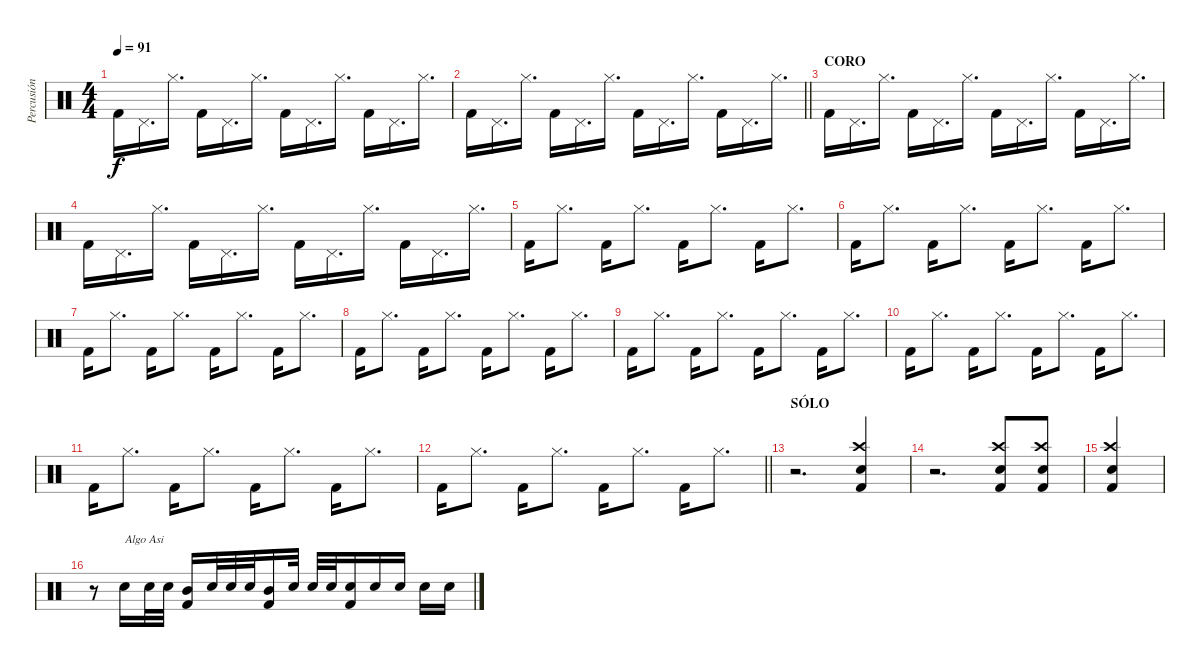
\track ("Percusión" "Percusión") {instrument percussion}
\staff {score}
\articulation defaults
\ts (4 4)
\section ("" "")
\tempo 91
\clef neutral
\ks c "Kick (hit) 2".16{dy f} "Pedal Hi-Hat (hit)".16{d} "Hi-Hat (closed)".16{d} "Kick (hit) 2".16 "Pedal Hi-Hat (hit)".16{d} "Hi-Hat (closed)".16{d} "Kick (hit) 2".16 "Pedal Hi-Hat (hit)".16{d} "Hi-Hat (closed)".16{d} "Kick (hit) 2".16 "Pedal Hi-Hat (hit)".16{d} "Hi-Hat (closed)".16{d}
|
\barLineRight lightlight "Kick (hit) 2".16 "Pedal Hi-Hat (hit)".16{d} "Hi-Hat (closed)".16{d} "Kick (hit) 2".16 "Pedal Hi-Hat (hit)".16{d} "Hi-Hat (closed)".16{d} "Kick (hit) 2".16 "Pedal Hi-Hat (hit)".16{d} "Hi-Hat (closed)".16{d} "Kick (hit) 2".16 "Pedal Hi-Hat (hit)".16{d} "Hi-Hat (closed)".16{d}
|
\section ("" "CORO")
"Kick (hit) 2".16 "Pedal Hi-Hat (hit)".16{d} "Hi-Hat (closed)".16{d} "Kick (hit) 2".16 "Pedal Hi-Hat (hit)".16{d} "Hi-Hat (closed)".16{d} "Kick (hit) 2".16 "Pedal Hi-Hat (hit)".16{d} "Hi-Hat (closed)".16{d} "Kick (hit) 2".16 "Pedal Hi-Hat (hit)".16{d} "Hi-Hat (closed)".16{d} |
"Kick (hit) 2".16 "Pedal Hi-Hat (hit)".16{d} "Hi-Hat (closed)".16{d} "Kick (hit) 2".16 "Pedal Hi-Hat (hit)".16{d} "Hi-Hat (closed)".16{d} "Kick (hit) 2".16 "Pedal Hi-Hat (hit)".16{d} "Hi-Hat (closed)".16{d} "Kick (hit) 2".16 "Pedal Hi-Hat (hit)".16{d} "Hi-Hat (closed)".16{d} |
"Kick (hit) 2".16 "Hi-Hat (closed)".8{d} "Kick (hit) 2".16 "Hi-Hat (closed)".8{d} "Kick (hit) 2".16 "Hi-Hat (closed)".8{d} "Kick (hit) 2".16 "Hi-Hat (closed)".8{d} |
"Kick (hit) 2".16 "Hi-Hat (closed)".8{d} "Kick (hit) 2".16 "Hi-Hat (closed)".8{d} "Kick (hit) 2".16 "Hi-Hat (closed)".8{d} "Kick (hit) 2".16 "Hi-Hat (closed)".8{d} |
"Kick (hit) 2".16 "Hi-Hat (closed)".8{d} "Kick (hit) 2".16 "Hi-Hat (closed)".8{d} "Kick (hit) 2".16 "Hi-Hat (closed)".8{d} "Kick (hit) 2".16 "Hi-Hat (closed)".8{d} |
"Kick (hit) 2".16 "Hi-Hat (closed)".8{d} "Kick (hit) 2".16 "Hi-Hat (closed)".8{d} "Kick (hit) 2".16 "Hi-Hat (closed)".8{d} "Kick (hit) 2".16 "Hi-Hat (closed)".8{d} |
"Kick (hit) 2".16 "Hi-Hat (closed)".8{d} "Kick (hit) 2".16 "Hi-Hat (closed)".8{d} "Kick (hit) 2".16 "Hi-Hat (closed)".8{d} "Kick (hit) 2".16 "Hi-Hat (closed)".8{d} |
"Kick (hit) 2".16 "Hi-Hat (closed)".8{d} "Kick (hit) 2".16 "Hi-Hat (closed)".8{d} "Kick (hit) 2".16 "Hi-Hat (closed)".8{d} "Kick (hit) 2".16 "Hi-Hat (closed)".8{d} |
"Kick (hit) 2".16 "Hi-Hat (closed)".8{d} "Kick (hit) 2".16 "Hi-Hat (closed)".8{d} "Kick (hit) 2".16 "Hi-Hat (closed)".8{d} "Kick (hit) 2".16 "Hi-Hat (closed)".8{d} |
\barLineRight lightlight "Kick (hit) 2".16 "Hi-Hat (closed)".8{d} "Kick (hit) 2".16 "Hi-Hat (closed)".8{d} "Kick (hit) 2".16 "Hi-Hat (closed)".8{d} "Kick (hit) 2".16 "Hi-Hat (closed)".8{d}
|
\section ("" "SÓLO")
r.2{d} ("Crash high (hit)" "Snare (hit) 2" "Kick (hit) 2").4 |
r.2{d} ("Crash high (hit)" "Snare (hit) 2" "Kick (hit) 2").8 ("Crash high (hit)" "Snare (hit) 2" "Kick (hit) 2").8 |
("Crash high (hit)" "Snare (hit) 2" "Kick (hit) 2").4 |
r.8 "Snare (hit) 2".16{txt "Algo Asi"} "Snare (hit) 2".32 "Snare (hit) 2".32 ("Mid Tom (hit)" "Kick (hit) 2").16 "Snare (hit) 2".32 "Snare (hit) 2".32 "Snare (hit) 2".32 ("Mid Tom (hit)" "Kick (hit) 2").16 "Snare (hit) 2".32 "Snare (hit) 2".32 "Snare (hit) 2".32 ("Snare (hit) 2" "Kick (hit) 2").16 "Snare (hit) 2".16 "Snare (hit) 2".16 "Snare (hit) 2".16 "Snare (hit) 2".16
